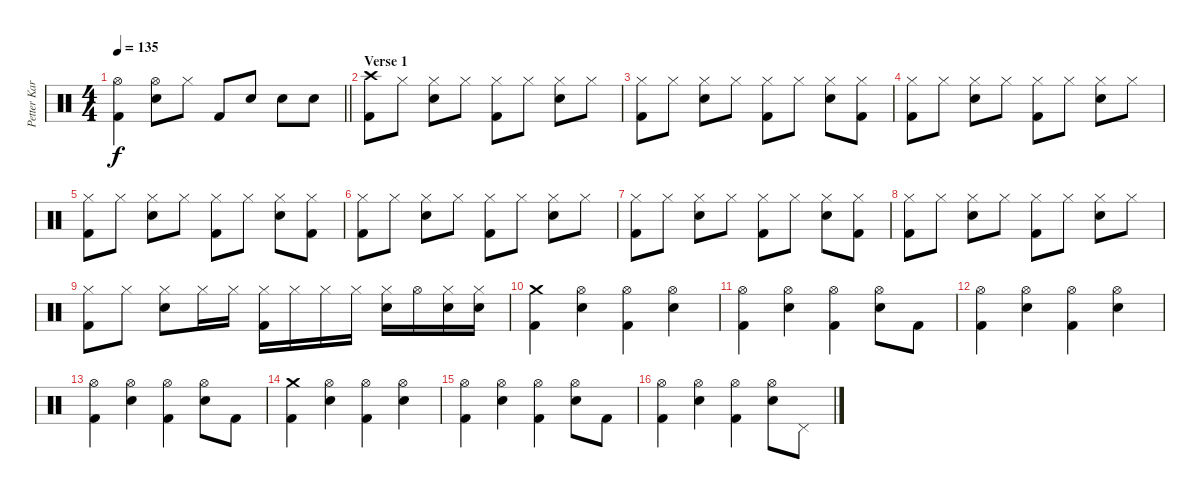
\track ("Petter Karlsson" "Petter Kar") {instrument percussion}
\staff {score}
\articulation defaults
\ts (4 4)
\tempo 135
\clef neutral
\barLineRight lightlight
\ks c
("Hi-Hat (open)" "Kick (hit) 2").4{dy f} ("Hi-Hat (open)" "Electric Snare (hit)").8 "Hi-Hat (closed)".8 "Kick (hit) 2".8 "Electric Snare (hit)".8 "Electric Snare (hit)".8 "Electric Snare (hit)".8 |
\section ("" "Verse 1")
("Crash high (hit)" "Kick (hit) 2").8 "Hi-Hat (closed)".8 ("Hi-Hat (closed)" "Electric Snare (hit)").8 "Hi-Hat (closed)".8 ("Hi-Hat (closed)" "Kick (hit) 2").8 "Hi-Hat (closed)".8 ("Hi-Hat (closed)" "Electric Snare (hit)").8 "Hi-Hat (closed)".8 |
("Hi-Hat (closed)" "Kick (hit) 2").8 "Hi-Hat (closed)".8 ("Hi-Hat (closed)" "Electric Snare (hit)").8 "Hi-Hat (closed)".8 ("Hi-Hat (closed)" "Kick (hit) 2").8 "Hi-Hat (closed)".8 ("Hi-Hat (closed)" "Electric Snare (hit)").8 ("Hi-Hat (closed)" "Kick (hit) 2").8 |
("Hi-Hat (closed)" "Kick (hit) 2").8 "Hi-Hat (closed)".8 ("Hi-Hat (closed)" "Electric Snare (hit)").8 "Hi-Hat (closed)".8 ("Hi-Hat (closed)" "Kick (hit) 2").8 "Hi-Hat (closed)".8 ("Hi-Hat (closed)" "Electric Snare (hit)").8 "Hi-Hat (closed)".8 |
("Hi-Hat (closed)" "Kick (hit) 2").8 "Hi-Hat (closed)".8 ("Hi-Hat (closed)" "Electric Snare (hit)").8 "Hi-Hat (closed)".8 ("Hi-Hat (closed)" "Kick (hit) 2").8 "Hi-Hat (closed)".8 ("Hi-Hat (closed)" "Electric Snare (hit)").8 ("Hi-Hat (closed)" "Kick (hit) 2").8 |
("Hi-Hat (closed)" "Kick (hit) 2").8 "Hi-Hat (closed)".8 ("Hi-Hat (closed)" "Electric Snare (hit)").8 "Hi-Hat (closed)".8 ("Hi-Hat (closed)" "Kick (hit) 2").8 "Hi-Hat (closed)".8 ("Hi-Hat (closed)" "Electric Snare (hit)").8 "Hi-Hat (closed)".8 |
("Hi-Hat (closed)" "Kick (hit) 2").8 "Hi-Hat (closed)".8 ("Hi-Hat (closed)" "Electric Snare (hit)").8 "Hi-Hat (closed)".8 ("Hi-Hat (closed)" "Kick (hit) 2").8 "Hi-Hat (closed)".8 ("Hi-Hat (closed)" "Electric Snare (hit)").8 ("Hi-Hat (closed)" "Kick (hit) 2").8 |
("Hi-Hat (closed)" "Kick (hit) 2").8 "Hi-Hat (closed)".8 ("Hi-Hat (closed)" "Electric Snare (hit)").8 "Hi-Hat (closed)".8 ("Hi-Hat (closed)" "Kick (hit) 2").8 "Hi-Hat (closed)".8 ("Hi-Hat (closed)" "Electric Snare (hit)").8 "Hi-Hat (closed)".8 |
("Hi-Hat (closed)" "Kick (hit) 2").8 "Hi-Hat (closed)".8 ("Hi-Hat (closed)" "Electric Snare (hit)").8 "Hi-Hat (closed)".16 "Hi-Hat (closed)".16 ("Hi-Hat (closed)" "Kick (hit) 2").16 "Hi-Hat (closed)".16 "Hi-Hat (closed)".16 "Hi-Hat (closed)".16 ("Hi-Hat (closed)" "Electric Snare (hit)").16 "Hi-Hat (open)".16 ("Hi-Hat (closed)" "Electric Snare (hit)").16 ("Hi-Hat (closed)" "Electric Snare (hit)").16 |
("Crash medium (hit)" "Kick (hit) 2").4 ("Hi-Hat (open)" "Electric Snare (hit)").4 ("Hi-Hat (open)" "Kick (hit) 2").4 ("Hi-Hat (open)" "Electric Snare (hit)").4 |
("Hi-Hat (open)" "Kick (hit) 2").4 ("Hi-Hat (open)" "Electric Snare (hit)").4 ("Hi-Hat (open)" "Kick (hit) 2").4 ("Hi-Hat (open)" "Electric Snare (hit)").8 "Kick (hit) 2".8 |
("Hi-Hat (open)" "Kick (hit) 2").4 ("Hi-Hat (open)" "Electric Snare (hit)").4 ("Hi-Hat (open)" "Kick (hit) 2").4 ("Hi-Hat (open)" "Electric Snare (hit)").4 |
("Hi-Hat (open)" "Kick (hit) 2").4 ("Hi-Hat (open)" "Electric Snare (hit)").4 ("Hi-Hat (open)" "Kick (hit) 2").4 ("Hi-Hat (open)" "Electric Snare (hit)").8 "Kick (hit) 2".8 |
("Crash medium (hit)" "Kick (hit) 2").4 ("Hi-Hat (open)" "Electric Snare (hit)").4 ("Hi-Hat (open)" "Kick (hit) 2").4 ("Hi-Hat (open)" "Electric Snare (hit)").4 |
("Hi-Hat (open)" "Kick (hit) 2").4 ("Hi-Hat (open)" "Electric Snare (hit)").4 ("Hi-Hat (open)" "Kick (hit) 2").4 ("Hi-Hat (open)" "Electric Snare (hit)").8 "Kick (hit) 2".8 |
("Hi-Hat (open)" "Kick (hit) 2").4 ("Hi-Hat (open)" "Electric Snare (hit)").4 ("Hi-Hat (open)" "Kick (hit) 2").4 ("Hi-Hat (open)" "Electric Snare (hit)").8 "Pedal Hi-Hat (hit)".8
